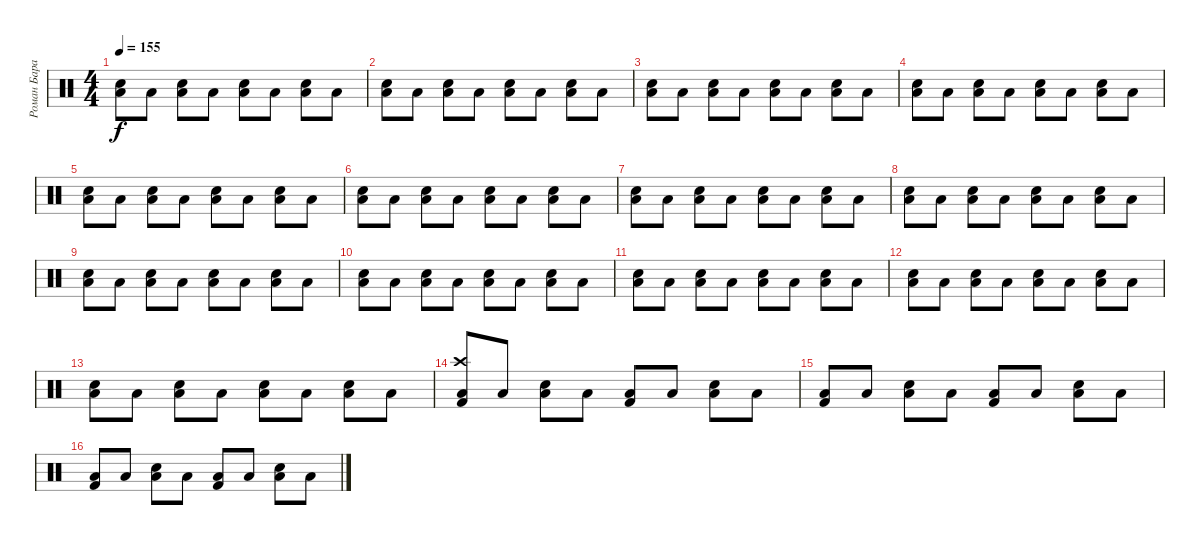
\track ("Роман Баранюк (Meinl, Vic Firth, Peace)" "Роман Бара") {instrument percussion}
\staff {score}
\articulation defaults
\ts (4 4)
\tempo 155
\clef neutral
\ks c
("Snare (hit) 2" "Low Tom (hit)").8{dy f} "Low Tom (hit)".8 ("Snare (hit) 2" "Low Tom (hit)").8 "Low Tom (hit)".8 ("Snare (hit) 2" "Low Tom (hit)").8 "Low Tom (hit)".8 ("Snare (hit) 2" "Low Tom (hit)").8 "Low Tom (hit)".8 |
("Snare (hit) 2" "Low Tom (hit)").8 "Low Tom (hit)".8 ("Snare (hit) 2" "Low Tom (hit)").8 "Low Tom (hit)".8 ("Snare (hit) 2" "Low Tom (hit)").8 "Low Tom (hit)".8 ("Snare (hit) 2" "Low Tom (hit)").8 "Low Tom (hit)".8 |
("Snare (hit) 2" "Low Tom (hit)").8 "Low Tom (hit)".8 ("Snare (hit) 2" "Low Tom (hit)").8 "Low Tom (hit)".8 ("Snare (hit) 2" "Low Tom (hit)").8 "Low Tom (hit)".8 ("Snare (hit) 2" "Low Tom (hit)").8 "Low Tom (hit)".8 |
("Snare (hit) 2" "Low Tom (hit)").8 "Low Tom (hit)".8 ("Snare (hit) 2" "Low Tom (hit)").8 "Low Tom (hit)".8 ("Snare (hit) 2" "Low Tom (hit)").8 "Low Tom (hit)".8 ("Snare (hit) 2" "Low Tom (hit)").8 "Low Tom (hit)".8 |
("Snare (hit) 2" "Low Tom (hit)").8 "Low Tom (hit)".8 ("Snare (hit) 2" "Low Tom (hit)").8 "Low Tom (hit)".8 ("Snare (hit) 2" "Low Tom (hit)").8 "Low Tom (hit)".8 ("Snare (hit) 2" "Low Tom (hit)").8 "Low Tom (hit)".8 |
("Snare (hit) 2" "Low Tom (hit)").8 "Low Tom (hit)".8 ("Snare (hit) 2" "Low Tom (hit)").8 "Low Tom (hit)".8 ("Snare (hit) 2" "Low Tom (hit)").8 "Low Tom (hit)".8 ("Snare (hit) 2" "Low Tom (hit)").8 "Low Tom (hit)".8 |
("Snare (hit) 2" "Low Tom (hit)").8 "Low Tom (hit)".8 ("Snare (hit) 2" "Low Tom (hit)").8 "Low Tom (hit)".8 ("Snare (hit) 2" "Low Tom (hit)").8 "Low Tom (hit)".8 ("Snare (hit) 2" "Low Tom (hit)").8 "Low Tom (hit)".8 |
("Snare (hit) 2" "Low Tom (hit)").8 "Low Tom (hit)".8 ("Snare (hit) 2" "Low Tom (hit)").8 "Low Tom (hit)".8 ("Snare (hit) 2" "Low Tom (hit)").8 "Low Tom (hit)".8 ("Snare (hit) 2" "Low Tom (hit)").8 "Low Tom (hit)".8 |
("Snare (hit) 2" "Low Tom (hit)").8 "Low Tom (hit)".8 ("Snare (hit) 2" "Low Tom (hit)").8 "Low Tom (hit)".8 ("Snare (hit) 2" "Low Tom (hit)").8 "Low Tom (hit)".8 ("Snare (hit) 2" "Low Tom (hit)").8 "Low Tom (hit)".8 |
("Snare (hit) 2" "Low Tom (hit)").8 "Low Tom (hit)".8 ("Snare (hit) 2" "Low Tom (hit)").8 "Low Tom (hit)".8 ("Snare (hit) 2" "Low Tom (hit)").8 "Low Tom (hit)".8 ("Snare (hit) 2" "Low Tom (hit)").8 "Low Tom (hit)".8 |
("Snare (hit) 2" "Low Tom (hit)").8 "Low Tom (hit)".8 ("Snare (hit) 2" "Low Tom (hit)").8 "Low Tom (hit)".8 ("Snare (hit) 2" "Low Tom (hit)").8 "Low Tom (hit)".8 ("Snare (hit) 2" "Low Tom (hit)").8 "Low Tom (hit)".8 |
("Snare (hit) 2" "Low Tom (hit)").8 "Low Tom (hit)".8 ("Snare (hit) 2" "Low Tom (hit)").8 "Low Tom (hit)".8 ("Snare (hit) 2" "Low Tom (hit)").8 "Low Tom (hit)".8 ("Snare (hit) 2" "Low Tom (hit)").8 "Low Tom (hit)".8 |
("Snare (hit) 2" "Low Tom (hit)").8 "Low Tom (hit)".8 ("Snare (hit) 2" "Low Tom (hit)").8 "Low Tom (hit)".8 ("Snare (hit) 2" "Low Tom (hit)").8 "Low Tom (hit)".8 ("Snare (hit) 2" "Low Tom (hit)").8 "Low Tom (hit)".8 |
("Crash high (hit)" "Low Tom (hit)" "Kick (hit) 2").8 "Low Tom (hit)".8 ("Snare (hit) 2" "Low Tom (hit)").8 "Low Tom (hit)".8 ("Low Tom (hit)" "Kick (hit) 2").8 "Low Tom (hit)".8 ("Snare (hit) 2" "Low Tom (hit)").8 "Low Tom (hit)".8 |
("Low Tom (hit)" "Kick (hit) 2").8 "Low Tom (hit)".8 ("Snare (hit) 2" "Low Tom (hit)").8 "Low Tom (hit)".8 ("Low Tom (hit)" "Kick (hit) 2").8 "Low Tom (hit)".8 ("Snare (hit) 2" "Low Tom (hit)").8 "Low Tom (hit)".8 |
("Low Tom (hit)" "Kick (hit) 2").8 "Low Tom (hit)".8 ("Snare (hit) 2" "Low Tom (hit)").8 "Low Tom (hit)".8 ("Low Tom (hit)" "Kick (hit) 2").8 "Low Tom (hit)".8 ("Snare (hit) 2" "Low Tom (hit)").8 "Low Tom (hit)".8
